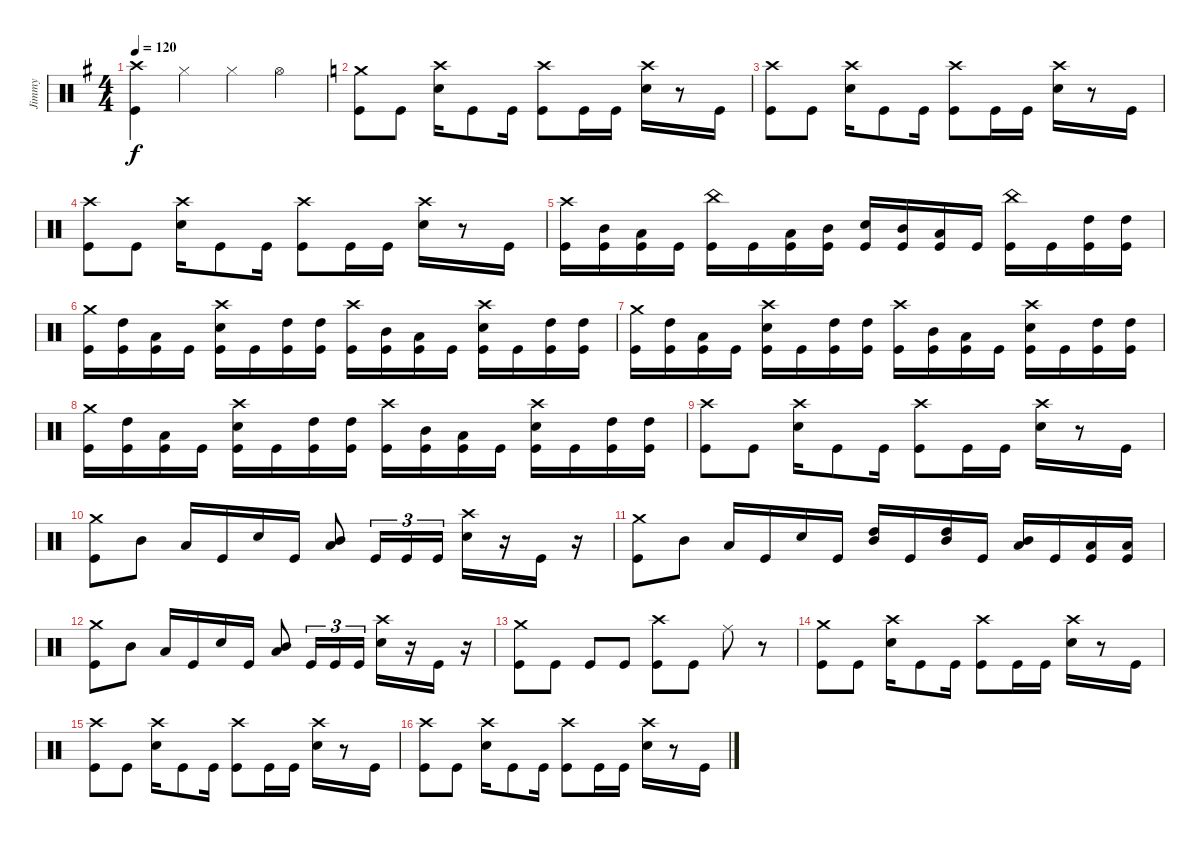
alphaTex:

\track ("Jimmy" "Jimmy") {instrument percussion}
\staff {score}
\articulation defaults
\ts (4 4)
\tempo 120
\clef neutral
\ks eminor
("Crash high (hit)" "Kick (hit)").4{dy f} "Hi-Hat (closed)".4 "Hi-Hat (closed)".4 "Hi-Hat (open)".4 |
\ks c
("Crash medium (hit)" "Kick (hit)").8 "Kick (hit)".8 ("Crash high (hit)" "Snare (hit) 2").16 "Kick (hit)".8 "Kick (hit)".16 ("Crash high (hit)" "Kick (hit)").8 "Kick (hit)".16 "Kick (hit)".16 ("Snare (hit) 2" "Crash high (hit)").16 r.8 "Kick (hit)".16 |
("Kick (hit)" "Crash high (hit)").8 "Kick (hit)".8 ("Crash high (hit)" "Snare (hit) 2").16 "Kick (hit)".8 "Kick (hit)".16 ("Crash high (hit)" "Kick (hit)").8 "Kick (hit)".16 "Kick (hit)".16 ("Snare (hit) 2" "Crash high (hit)").16 r.8 "Kick (hit)".16 |
("Kick (hit)" "Crash high (hit)").8 "Kick (hit)".8 ("Crash high (hit)" "Snare (hit) 2").16 "Kick (hit)".8 "Kick (hit)".16 ("Crash high (hit)" "Kick (hit)").8 "Kick (hit)".16 "Kick (hit)".16 ("Snare (hit) 2" "Crash high (hit)").16 r.8 "Kick (hit)".16 |
("Kick (hit)" "Crash high (hit)").16 ("Kick (hit)" "Mid Tom (hit)").16 ("Kick (hit)" "Low Tom (hit)").16 "Kick (hit)".16 ("Kick (hit)" "China (hit)").16 "Kick (hit)".16 ("Kick (hit)" "Low Tom (hit)").16 ("Kick (hit)" "Mid Tom (hit)").16 ("Kick (hit)" "Snare (hit) 2").16 ("Kick (hit)" "Mid Tom (hit)").16 ("Kick (hit)" "Low Tom (hit)").16 "Kick (hit)".16 ("Kick (hit)" "China (hit)").16 "Kick (hit)".16 ("Kick (hit)" "High Tom (hit)").16 ("Kick (hit)" "High Tom (hit)").16 |
("Kick (hit)" "Crash medium (hit)").16 ("Kick (hit)" "High Tom (hit)").16 ("Kick (hit)" "Low Tom (hit)").16 "Kick (hit)".16 ("Snare (hit) 2" "Crash high (hit)" "Kick (hit)").16 "Kick (hit)".16 ("High Tom (hit)" "Kick (hit)").16 ("High Tom (hit)" "Kick (hit)").16 ("Crash high (hit)" "Kick (hit)").16 ("Mid Tom (hit)" "Kick (hit)").16 ("Low Tom (hit)" "Kick (hit)").16 "Kick (hit)".16 ("Snare (hit) 2" "Crash high (hit)" "Kick (hit)").16 "Kick (hit)".16 ("High Tom (hit)" "Kick (hit)").16 ("High Tom (hit)" "Kick (hit)").16 |
("Kick (hit)" "Crash medium (hit)").16 ("Kick (hit)" "High Tom (hit)").16 ("Kick (hit)" "Low Tom (hit)").16 "Kick (hit)".16 ("Snare (hit) 2" "Crash high (hit)" "Kick (hit)").16 "Kick (hit)".16 ("High Tom (hit)" "Kick (hit)").16 ("High Tom (hit)" "Kick (hit)").16 ("Crash high (hit)" "Kick (hit)").16 ("Mid Tom (hit)" "Kick (hit)").16 ("Low Tom (hit)" "Kick (hit)").16 "Kick (hit)".16 ("Snare (hit) 2" "Crash high (hit)" "Kick (hit)").16 "Kick (hit)".16 ("High Tom (hit)" "Kick (hit)").16 ("High Tom (hit)" "Kick (hit)").16 |
("Kick (hit)" "Crash medium (hit)").16 ("Kick (hit)" "High Tom (hit)").16 ("Kick (hit)" "Low Tom (hit)").16 "Kick (hit)".16 ("Snare (hit) 2" "Crash high (hit)" "Kick (hit)").16 "Kick (hit)".16 ("High Tom (hit)" "Kick (hit)").16 ("High Tom (hit)" "Kick (hit)").16 ("Crash high (hit)" "Kick (hit)").16 ("Mid Tom (hit)" "Kick (hit)").16 ("Low Tom (hit)" "Kick (hit)").16 "Kick (hit)".16 ("Snare (hit) 2" "Crash high (hit)" "Kick (hit)").16 "Kick (hit)".16 ("High Tom (hit)" "Kick (hit)").16 ("High Tom (hit)" "Kick (hit)").16 |
("Kick (hit)" "Crash high (hit)").8 "Kick (hit)".8 ("Crash high (hit)" "Snare (hit) 2").16 "Kick (hit)".8 "Kick (hit)".16 ("Crash high (hit)" "Kick (hit)").8 "Kick (hit)".16 "Kick (hit)".16 ("Snare (hit) 2" "Crash high (hit)").16 r.8 "Kick (hit)".16 |
("Crash medium (hit)" "Kick (hit)").8 "Mid Tom (hit)".8 "Low Tom (hit)".16 "Kick (hit)".16 "Snare (hit) 2".16 "Kick (hit)".16 ("Mid Tom (hit)" "Low Tom (hit)").8 "Kick (hit)".16{tu (3 2)} "Kick (hit)".16{tu (3 2)} "Kick (hit)".16{tu (3 2)} ("Snare (hit) 2" "Crash high (hit)").16 r.16 "Kick (hit)".16 r.16 |
("Crash medium (hit)" "Kick (hit)").8 "Mid Tom (hit)".8 "Low Tom (hit)".16 "Kick (hit)".16 "Snare (hit) 2".16 "Kick (hit)".16 ("Mid Tom (hit)" "High Tom (hit)").16 "Kick (hit)".16 ("Mid Tom (hit)" "High Tom (hit)").16 "Kick (hit)".16 ("Mid Tom (hit)" "Low Tom (hit)").16 "Kick (hit)".16 ("Kick (hit)" "Low Tom (hit)").16 ("Kick (hit)" "Low Tom (hit)").16 |
("Crash medium (hit)" "Kick (hit)").8 "Mid Tom (hit)".8 "Low Tom (hit)".16 "Kick (hit)".16 "Snare (hit) 2".16 "Kick (hit)".16 ("Mid Tom (hit)" "Low Tom (hit)").8 "Kick (hit)".16{tu (3 2)} "Kick (hit)".16{tu (3 2)} "Kick (hit)".16{tu (3 2)} ("Snare (hit) 2" "Crash high (hit)").16 r.16 "Kick (hit)".16 r.16 |
("Kick (hit)" "Crash medium (hit)").8 "Kick (hit)".8 "Kick (hit)".8 "Kick (hit)".8 ("Kick (hit)" "Crash high (hit)").8 "Kick (hit)".8 "Ride (middle)".8 r.8 |
("Crash medium (hit)" "Kick (hit)").8 "Kick (hit)".8 ("Crash high (hit)" "Snare (hit) 2").16 "Kick (hit)".8 "Kick (hit)".16 ("Crash high (hit)" "Kick (hit)").8 "Kick (hit)".16 "Kick (hit)".16 ("Snare (hit) 2" "Crash high (hit)").16 r.8 "Kick (hit)".16 |
("Kick (hit)" "Crash high (hit)").8 "Kick (hit)".8 ("Crash high (hit)" "Snare (hit) 2").16 "Kick (hit)".8 "Kick (hit)".16 ("Crash high (hit)" "Kick (hit)").8 "Kick (hit)".16 "Kick (hit)".16 ("Snare (hit) 2" "Crash high (hit)").16 r.8 "Kick (hit)".16 |
("Crash high (hit)" "Kick (hit)").8 "Kick (hit)".8 ("Crash high (hit)" "Snare (hit) 2").16 "Kick (hit)".8 "Kick (hit)".16 ("Crash high (hit)" "Kick (hit)").8 "Kick (hit)".16 "Kick (hit)".16 ("Snare (hit) 2" "Crash high (hit)").16 r.8 "Kick (hit)".16
